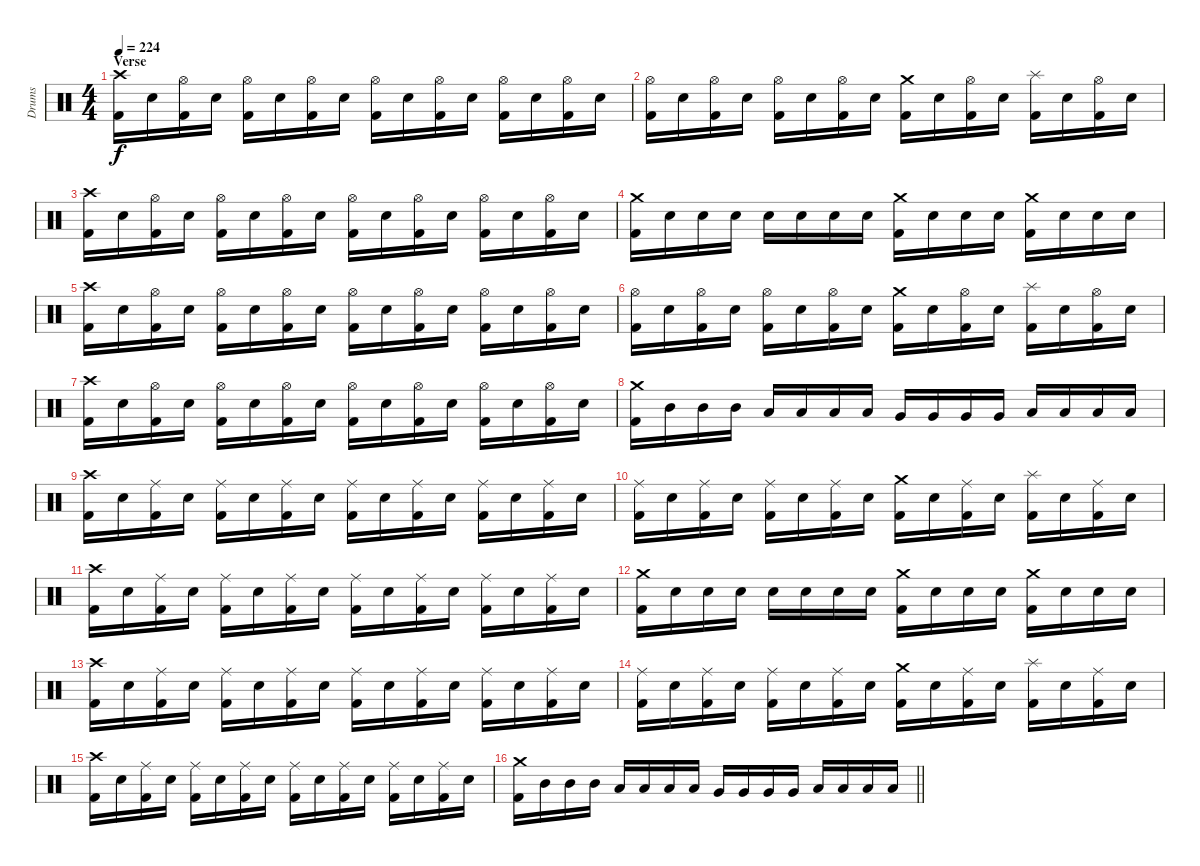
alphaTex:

\track ("Drums" "Drums") {instrument percussion}
\staff {score}
\articulation defaults
\ts (4 4)
\section ("" "Verse")
\tempo 224
\clef neutral
\ks c
("Crash high (hit)" "Kick (hit) 2").16{dy f} "Electric Snare (hit)".16 ("Hi-Hat (open)" "Kick (hit) 2").16 "Electric Snare (hit)".16 ("Hi-Hat (open)" "Kick (hit) 2").16 "Electric Snare (hit)".16 ("Hi-Hat (open)" "Kick (hit) 2").16 "Electric Snare (hit)".16 ("Hi-Hat (open)" "Kick (hit) 2").16 "Electric Snare (hit)".16 ("Hi-Hat (open)" "Kick (hit) 2").16 "Electric Snare (hit)".16 ("Hi-Hat (open)" "Kick (hit) 2").16 "Electric Snare (hit)".16 ("Hi-Hat (open)" "Kick (hit) 2").16 "Electric Snare (hit)".16 |
("Hi-Hat (open)" "Kick (hit) 2").16 "Electric Snare (hit)".16 ("Hi-Hat (open)" "Kick (hit) 2").16 "Electric Snare (hit)".16 ("Hi-Hat (open)" "Kick (hit) 2").16 "Electric Snare (hit)".16 ("Hi-Hat (open)" "Kick (hit) 2").16 "Electric Snare (hit)".16 ("Crash medium (hit)" "Kick (hit) 2").16 "Electric Snare (hit)".16 ("Hi-Hat (open)" "Kick (hit) 2").16 "Electric Snare (hit)".16 ("Splash (hit)" "Kick (hit) 2").16 "Electric Snare (hit)".16 ("Hi-Hat (open)" "Kick (hit) 2").16 "Electric Snare (hit)".16 |
("Crash high (hit)" "Kick (hit) 2").16 "Electric Snare (hit)".16 ("Hi-Hat (open)" "Kick (hit) 2").16 "Electric Snare (hit)".16 ("Hi-Hat (open)" "Kick (hit) 2").16 "Electric Snare (hit)".16 ("Hi-Hat (open)" "Kick (hit) 2").16 "Electric Snare (hit)".16 ("Hi-Hat (open)" "Kick (hit) 2").16 "Electric Snare (hit)".16 ("Hi-Hat (open)" "Kick (hit) 2").16 "Electric Snare (hit)".16 ("Hi-Hat (open)" "Kick (hit) 2").16 "Electric Snare (hit)".16 ("Hi-Hat (open)" "Kick (hit) 2").16 "Electric Snare (hit)".16 |
("Crash medium (hit)" "Kick (hit) 2").16 "Electric Snare (hit)".16 "Electric Snare (hit)".16 "Electric Snare (hit)".16 "Electric Snare (hit)".16 "Electric Snare (hit)".16 "Electric Snare (hit)".16 "Electric Snare (hit)".16 ("Crash medium (hit)" "Kick (hit) 2").16 "Electric Snare (hit)".16 "Electric Snare (hit)".16 "Electric Snare (hit)".16 ("Crash medium (hit)" "Kick (hit) 2").16 "Electric Snare (hit)".16 "Electric Snare (hit)".16 "Electric Snare (hit)".16 |
("Crash high (hit)" "Kick (hit) 2").16 "Electric Snare (hit)".16 ("Hi-Hat (open)" "Kick (hit) 2").16 "Electric Snare (hit)".16 ("Hi-Hat (open)" "Kick (hit) 2").16 "Electric Snare (hit)".16 ("Hi-Hat (open)" "Kick (hit) 2").16 "Electric Snare (hit)".16 ("Hi-Hat (open)" "Kick (hit) 2").16 "Electric Snare (hit)".16 ("Hi-Hat (open)" "Kick (hit) 2").16 "Electric Snare (hit)".16 ("Hi-Hat (open)" "Kick (hit) 2").16 "Electric Snare (hit)".16 ("Hi-Hat (open)" "Kick (hit) 2").16 "Electric Snare (hit)".16 |
("Hi-Hat (open)" "Kick (hit) 2").16 "Electric Snare (hit)".16 ("Hi-Hat (open)" "Kick (hit) 2").16 "Electric Snare (hit)".16 ("Hi-Hat (open)" "Kick (hit) 2").16 "Electric Snare (hit)".16 ("Hi-Hat (open)" "Kick (hit) 2").16 "Electric Snare (hit)".16 ("Crash medium (hit)" "Kick (hit) 2").16 "Electric Snare (hit)".16 ("Hi-Hat (open)" "Kick (hit) 2").16 "Electric Snare (hit)".16 ("Splash (hit)" "Kick (hit) 2").16 "Electric Snare (hit)".16 ("Hi-Hat (open)" "Kick (hit) 2").16 "Electric Snare (hit)".16 |
("Crash high (hit)" "Kick (hit) 2").16 "Electric Snare (hit)".16 ("Hi-Hat (open)" "Kick (hit) 2").16 "Electric Snare (hit)".16 ("Hi-Hat (open)" "Kick (hit) 2").16 "Electric Snare (hit)".16 ("Hi-Hat (open)" "Kick (hit) 2").16 "Electric Snare (hit)".16 ("Hi-Hat (open)" "Kick (hit) 2").16 "Electric Snare (hit)".16 ("Hi-Hat (open)" "Kick (hit) 2").16 "Electric Snare (hit)".16 ("Hi-Hat (open)" "Kick (hit) 2").16 "Electric Snare (hit)".16 ("Hi-Hat (open)" "Kick (hit) 2").16 "Electric Snare (hit)".16 |
("Crash medium (hit)" "Kick (hit) 2").16 "Mid Tom (hit)".16 "Mid Tom (hit)".16 "Mid Tom (hit)".16 "Low Tom (hit)".16 "Low Tom (hit)".16 "Low Tom (hit)".16 "Low Tom (hit)".16 "Very Low Tom (hit)".16 "Very Low Tom (hit)".16 "Very Low Tom (hit)".16 "Very Low Tom (hit)".16 "Low Floor Tom (hit)".16 "Low Floor Tom (hit)".16 "Low Floor Tom (hit)".16 "Low Floor Tom (hit)".16 |
("Crash high (hit)" "Kick (hit) 2").16 "Electric Snare (hit)".16 ("Ride (middle)" "Kick (hit) 2").16 "Electric Snare (hit)".16 ("Ride (middle)" "Kick (hit) 2").16 "Electric Snare (hit)".16 ("Ride (middle)" "Kick (hit) 2").16 "Electric Snare (hit)".16 ("Ride (middle)" "Kick (hit) 2").16 "Electric Snare (hit)".16 ("Ride (middle)" "Kick (hit) 2").16 "Electric Snare (hit)".16 ("Ride (middle)" "Kick (hit) 2").16 "Electric Snare (hit)".16 ("Ride (middle)" "Kick (hit) 2").16 "Electric Snare (hit)".16 |
("Ride (middle)" "Kick (hit) 2").16 "Electric Snare (hit)".16 ("Ride (middle)" "Kick (hit) 2").16 "Electric Snare (hit)".16 ("Ride (middle)" "Kick (hit) 2").16 "Electric Snare (hit)".16 ("Ride (middle)" "Kick (hit) 2").16 "Electric Snare (hit)".16 ("Crash medium (hit)" "Kick (hit) 2").16 "Electric Snare (hit)".16 ("Ride (middle)" "Kick (hit) 2").16 "Electric Snare (hit)".16 ("Splash (hit)" "Kick (hit) 2").16 "Electric Snare (hit)".16 ("Ride (middle)" "Kick (hit) 2").16 "Electric Snare (hit)".16 |
("Crash high (hit)" "Kick (hit) 2").16 "Electric Snare (hit)".16 ("Ride (middle)" "Kick (hit) 2").16 "Electric Snare (hit)".16 ("Ride (middle)" "Kick (hit) 2").16 "Electric Snare (hit)".16 ("Ride (middle)" "Kick (hit) 2").16 "Electric Snare (hit)".16 ("Ride (middle)" "Kick (hit) 2").16 "Electric Snare (hit)".16 ("Ride (middle)" "Kick (hit) 2").16 "Electric Snare (hit)".16 ("Ride (middle)" "Kick (hit) 2").16 "Electric Snare (hit)".16 ("Ride (middle)" "Kick (hit) 2").16 "Electric Snare (hit)".16 |
("Crash medium (hit)" "Kick (hit) 2").16 "Electric Snare (hit)".16 "Electric Snare (hit)".16 "Electric Snare (hit)".16 "Electric Snare (hit)".16 "Electric Snare (hit)".16 "Electric Snare (hit)".16 "Electric Snare (hit)".16 ("Crash medium (hit)" "Kick (hit) 2").16 "Electric Snare (hit)".16 "Electric Snare (hit)".16 "Electric Snare (hit)".16 ("Crash medium (hit)" "Kick (hit) 2").16 "Electric Snare (hit)".16 "Electric Snare (hit)".16 "Electric Snare (hit)".16 |
("Crash high (hit)" "Kick (hit) 2").16 "Electric Snare (hit)".16 ("Ride (middle)" "Kick (hit) 2").16 "Electric Snare (hit)".16 ("Ride (middle)" "Kick (hit) 2").16 "Electric Snare (hit)".16 ("Ride (middle)" "Kick (hit) 2").16 "Electric Snare (hit)".16 ("Ride (middle)" "Kick (hit) 2").16 "Electric Snare (hit)".16 ("Ride (middle)" "Kick (hit) 2").16 "Electric Snare (hit)".16 ("Ride (middle)" "Kick (hit) 2").16 "Electric Snare (hit)".16 ("Ride (middle)" "Kick (hit) 2").16 "Electric Snare (hit)".16 |
("Ride (middle)" "Kick (hit) 2").16 "Electric Snare (hit)".16 ("Ride (middle)" "Kick (hit) 2").16 "Electric Snare (hit)".16 ("Ride (middle)" "Kick (hit) 2").16 "Electric Snare (hit)".16 ("Ride (middle)" "Kick (hit) 2").16 "Electric Snare (hit)".16 ("Crash medium (hit)" "Kick (hit) 2").16 "Electric Snare (hit)".16 ("Ride (middle)" "Kick (hit) 2").16 "Electric Snare (hit)".16 ("Splash (hit)" "Kick (hit) 2").16 "Electric Snare (hit)".16 ("Ride (middle)" "Kick (hit) 2").16 "Electric Snare (hit)".16 |
("Crash high (hit)" "Kick (hit) 2").16 "Electric Snare (hit)".16 ("Ride (middle)" "Kick (hit) 2").16 "Electric Snare (hit)".16 ("Ride (middle)" "Kick (hit) 2").16 "Electric Snare (hit)".16 ("Ride (middle)" "Kick (hit) 2").16 "Electric Snare (hit)".16 ("Ride (middle)" "Kick (hit) 2").16 "Electric Snare (hit)".16 ("Ride (middle)" "Kick (hit) 2").16 "Electric Snare (hit)".16 ("Ride (middle)" "Kick (hit) 2").16 "Electric Snare (hit)".16 ("Ride (middle)" "Kick (hit) 2").16 "Electric Snare (hit)".16 |
\barLineRight lightlight
("Crash medium (hit)" "Kick (hit) 2").16 "Mid Tom (hit)".16 "Mid Tom (hit)".16 "Mid Tom (hit)".16 "Low Tom (hit)".16 "Low Tom (hit)".16 "Low Tom (hit)".16 "Low Tom (hit)".16 "Very Low Tom (hit)".16 "Very Low Tom (hit)".16 "Very Low Tom (hit)".16 "Very Low Tom (hit)".16 "Low Floor Tom (hit)".16 "Low Floor Tom (hit)".16 "Low Floor Tom (hit)".16 "Low Floor Tom (hit)".16
